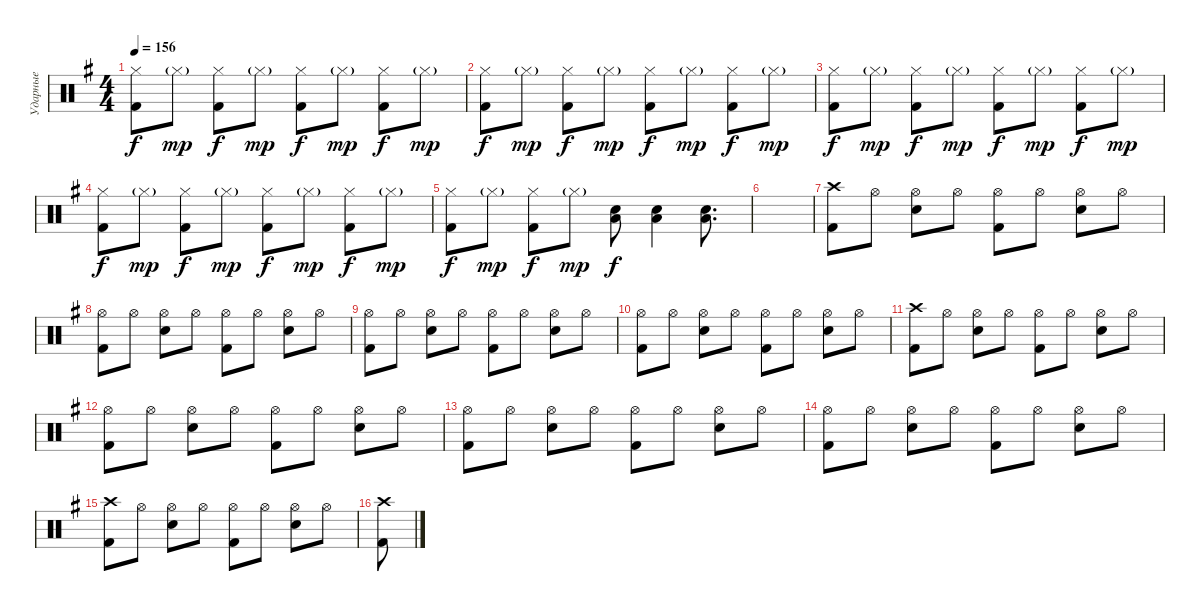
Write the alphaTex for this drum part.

\track ("Ударные" "Ударные") {instrument percussion}
\staff {score}
\articulation defaults
\ts (4 4)
\tempo 156
\clef neutral
\ks g
("Kick (hit) 2" "Hi-Hat (closed)").8{dy f} "Hi-Hat (closed)"{g}.8{dy mp} ("Kick (hit) 2" "Hi-Hat (closed)").8{dy f} "Hi-Hat (closed)"{g}.8{dy mp} ("Kick (hit) 2" "Hi-Hat (closed)").8{dy f} "Hi-Hat (closed)"{g}.8{dy mp} ("Kick (hit) 2" "Hi-Hat (closed)").8{dy f} "Hi-Hat (closed)"{g}.8{dy mp} |
("Kick (hit) 2" "Hi-Hat (closed)").8{dy f} "Hi-Hat (closed)"{g}.8{dy mp} ("Kick (hit) 2" "Hi-Hat (closed)").8{dy f} "Hi-Hat (closed)"{g}.8{dy mp} ("Kick (hit) 2" "Hi-Hat (closed)").8{dy f} "Hi-Hat (closed)"{g}.8{dy mp} ("Kick (hit) 2" "Hi-Hat (closed)").8{dy f} "Hi-Hat (closed)"{g}.8{dy mp} |
("Kick (hit) 2" "Hi-Hat (closed)").8{dy f} "Hi-Hat (closed)"{g}.8{dy mp} ("Kick (hit) 2" "Hi-Hat (closed)").8{dy f} "Hi-Hat (closed)"{g}.8{dy mp} ("Kick (hit) 2" "Hi-Hat (closed)").8{dy f} "Hi-Hat (closed)"{g}.8{dy mp} ("Kick (hit) 2" "Hi-Hat (closed)").8{dy f} "Hi-Hat (closed)"{g}.8{dy mp} |
("Kick (hit) 2" "Hi-Hat (closed)").8{dy f} "Hi-Hat (closed)"{g}.8{dy mp} ("Kick (hit) 2" "Hi-Hat (closed)").8{dy f} "Hi-Hat (closed)"{g}.8{dy mp} ("Kick (hit) 2" "Hi-Hat (closed)").8{dy f} "Hi-Hat (closed)"{g}.8{dy mp} ("Kick (hit) 2" "Hi-Hat (closed)").8{dy f} "Hi-Hat (closed)"{g}.8{dy mp} |
("Kick (hit) 2" "Hi-Hat (closed)").8{dy f} "Hi-Hat (closed)"{g}.8{dy mp} ("Kick (hit) 2" "Hi-Hat (closed)").8{dy f} "Hi-Hat (closed)"{g}.8{dy mp} ("Electric Snare (hit)" "Low Tom (hit)").8{dy f} ("Electric Snare (hit)" "Low Tom (hit)").4 ("Electric Snare (hit)" "Low Tom (hit)").8{d} |
|
("Crash high (hit)" "Kick (hit) 2").8 "Hi-Hat (open)".8 ("Hi-Hat (open)" "Electric Snare (hit)").8 "Hi-Hat (open)".8 ("Hi-Hat (open)" "Kick (hit) 2").8 "Hi-Hat (open)".8 ("Hi-Hat (open)" "Electric Snare (hit)").8 "Hi-Hat (open)".8 |
("Hi-Hat (open)" "Kick (hit) 2").8 "Hi-Hat (open)".8 ("Hi-Hat (open)" "Electric Snare (hit)").8 "Hi-Hat (open)".8 ("Hi-Hat (open)" "Kick (hit) 2").8 "Hi-Hat (open)".8 ("Hi-Hat (open)" "Electric Snare (hit)").8 "Hi-Hat (open)".8 |
("Hi-Hat (open)" "Kick (hit) 2").8 "Hi-Hat (open)".8 ("Hi-Hat (open)" "Electric Snare (hit)").8 "Hi-Hat (open)".8 ("Hi-Hat (open)" "Kick (hit) 2").8 "Hi-Hat (open)".8 ("Hi-Hat (open)" "Electric Snare (hit)").8 "Hi-Hat (open)".8 |
("Hi-Hat (open)" "Kick (hit) 2").8 "Hi-Hat (open)".8 ("Hi-Hat (open)" "Electric Snare (hit)").8 "Hi-Hat (open)".8 ("Hi-Hat (open)" "Kick (hit) 2").8 "Hi-Hat (open)".8 ("Hi-Hat (open)" "Electric Snare (hit)").8 "Hi-Hat (open)".8 |
("Crash high (hit)" "Kick (hit) 2").8 "Hi-Hat (open)".8 ("Hi-Hat (open)" "Electric Snare (hit)").8 "Hi-Hat (open)".8 ("Hi-Hat (open)" "Kick (hit) 2").8 "Hi-Hat (open)".8 ("Hi-Hat (open)" "Electric Snare (hit)").8 "Hi-Hat (open)".8 |
("Hi-Hat (open)" "Kick (hit) 2").8 "Hi-Hat (open)".8 ("Hi-Hat (open)" "Electric Snare (hit)").8 "Hi-Hat (open)".8 ("Hi-Hat (open)" "Kick (hit) 2").8 "Hi-Hat (open)".8 ("Hi-Hat (open)" "Electric Snare (hit)").8 "Hi-Hat (open)".8 |
("Hi-Hat (open)" "Kick (hit) 2").8 "Hi-Hat (open)".8 ("Hi-Hat (open)" "Electric Snare (hit)").8 "Hi-Hat (open)".8 ("Hi-Hat (open)" "Kick (hit) 2").8 "Hi-Hat (open)".8 ("Hi-Hat (open)" "Electric Snare (hit)").8 "Hi-Hat (open)".8 |
("Hi-Hat (open)" "Kick (hit) 2").8 "Hi-Hat (open)".8 ("Hi-Hat (open)" "Electric Snare (hit)").8 "Hi-Hat (open)".8 ("Hi-Hat (open)" "Kick (hit) 2").8 "Hi-Hat (open)".8 ("Hi-Hat (open)" "Electric Snare (hit)").8 "Hi-Hat (open)".8 |
("Crash high (hit)" "Kick (hit) 2").8 "Hi-Hat (open)".8 ("Hi-Hat (open)" "Electric Snare (hit)").8 "Hi-Hat (open)".8 ("Hi-Hat (open)" "Kick (hit) 2").8 "Hi-Hat (open)".8 ("Hi-Hat (open)" "Electric Snare (hit)").8 "Hi-Hat (open)".8 |
("Crash high (hit)" "Kick (hit) 2").8
